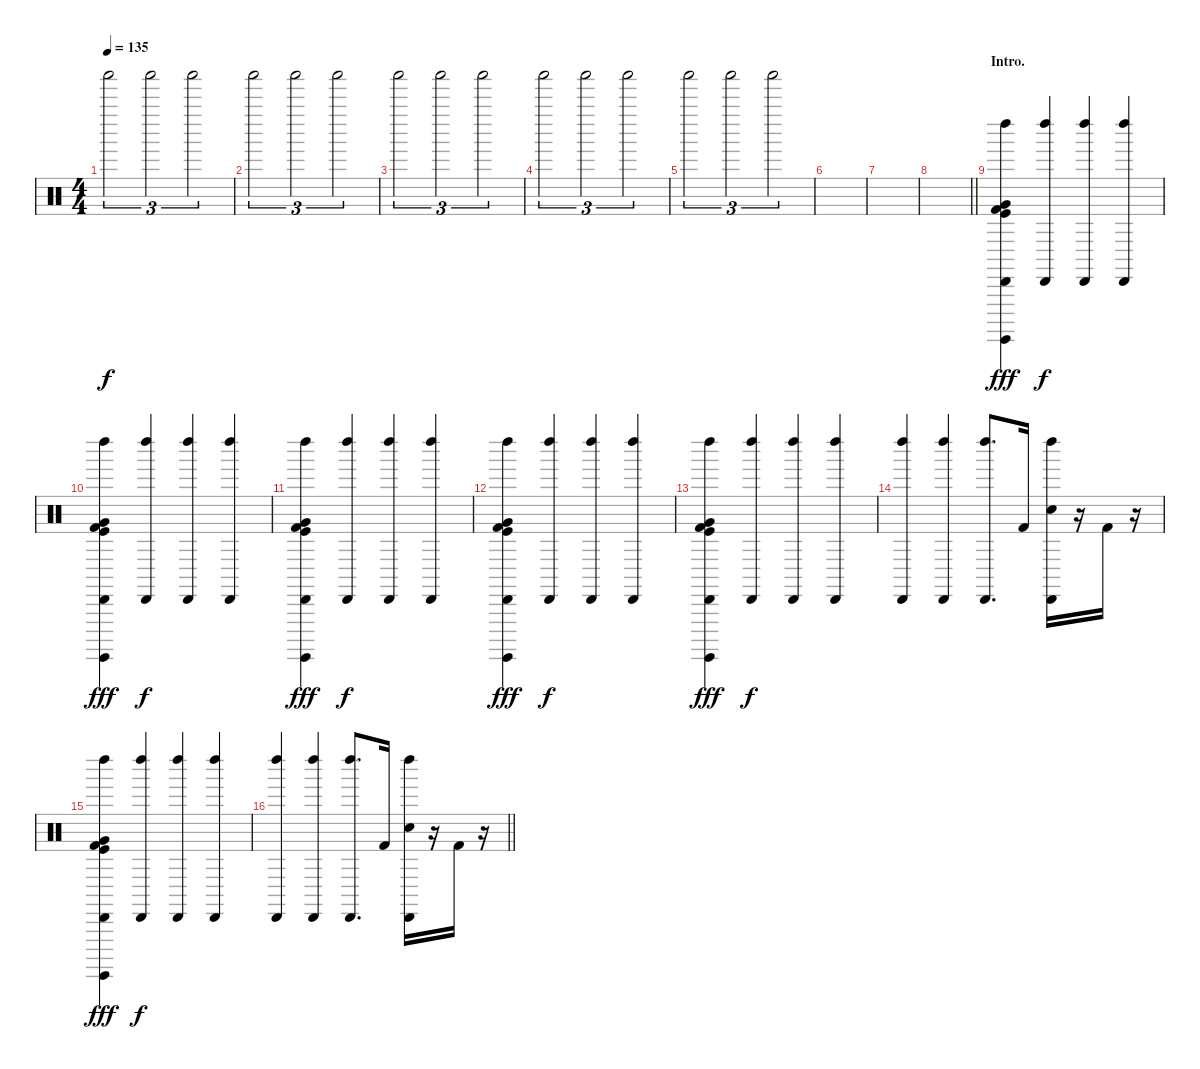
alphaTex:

\track "" {instrument percussion}
\staff {score}
\articulation defaults
\ts (4 4)
\tempo 135
\clef neutral
\ks c "Shaker (hit)".2{tu (3 2) dy f} "Shaker (hit)".2{tu (3 2)} "Shaker (hit)".2{tu (3 2)}
|
"Shaker (hit)".2{tu (3 2)} "Shaker (hit)".2{tu (3 2)} "Shaker (hit)".2{tu (3 2)} |
"Shaker (hit)".2{tu (3 2)} "Shaker (hit)".2{tu (3 2)} "Shaker (hit)".2{tu (3 2)} |
"Shaker (hit)".2{tu (3 2)} "Shaker (hit)".2{tu (3 2)} "Shaker (hit)".2{tu (3 2)} |
"Shaker (hit)".2{tu (3 2)} "Shaker (hit)".2{tu (3 2)} "Shaker (hit)".2{tu (3 2)} |
|
|
\barLineRight lightlight
|
\section ("" "Intro.")
("Left Maraca (hit)" "Cabasa (hit)" "Very Low Tom (hit)" "Surdo (hit)" "Kick (hit)" "Kick (hit) 2").4{dy fff} ("Left Maraca (hit)" "Cabasa (hit)").4{dy f} ("Left Maraca (hit)" "Cabasa (hit)").4 ("Left Maraca (hit)" "Cabasa (hit)").4 |
("Left Maraca (hit)" "Cabasa (hit)" "Very Low Tom (hit)" "Surdo (hit)" "Kick (hit)" "Kick (hit) 2").4{dy fff} ("Left Maraca (hit)" "Cabasa (hit)").4{dy f} ("Left Maraca (hit)" "Cabasa (hit)").4 ("Left Maraca (hit)" "Cabasa (hit)").4 |
("Left Maraca (hit)" "Cabasa (hit)" "Very Low Tom (hit)" "Surdo (hit)" "Kick (hit)" "Kick (hit) 2").4{dy fff} ("Left Maraca (hit)" "Cabasa (hit)").4{dy f} ("Left Maraca (hit)" "Cabasa (hit)").4 ("Left Maraca (hit)" "Cabasa (hit)").4 |
("Left Maraca (hit)" "Cabasa (hit)" "Very Low Tom (hit)" "Surdo (hit)" "Kick (hit)" "Kick (hit) 2").4{dy fff} ("Left Maraca (hit)" "Cabasa (hit)").4{dy f} ("Left Maraca (hit)" "Cabasa (hit)").4 ("Left Maraca (hit)" "Cabasa (hit)").4 |
("Left Maraca (hit)" "Cabasa (hit)" "Very Low Tom (hit)" "Surdo (hit)" "Kick (hit)" "Kick (hit) 2").4{dy fff} ("Left Maraca (hit)" "Cabasa (hit)").4{dy f} ("Left Maraca (hit)" "Cabasa (hit)").4 ("Left Maraca (hit)" "Cabasa (hit)").4 |
("Left Maraca (hit)" "Cabasa (hit)").4 ("Left Maraca (hit)" "Cabasa (hit)").4 ("Left Maraca (hit)" "Cabasa (hit)").8{d} "Kick (hit) 2".16 ("Left Maraca (hit)" "Cabasa (hit)" "Electric Snare (hit)").16 r.16 "Kick (hit) 2".16 r.16 |
("Left Maraca (hit)" "Cabasa (hit)" "Very Low Tom (hit)" "Surdo (hit)" "Kick (hit)" "Kick (hit) 2").4{dy fff} ("Left Maraca (hit)" "Cabasa (hit)").4{dy f} ("Left Maraca (hit)" "Cabasa (hit)").4 ("Left Maraca (hit)" "Cabasa (hit)").4 |
\barLineRight lightlight
("Left Maraca (hit)" "Cabasa (hit)").4 ("Left Maraca (hit)" "Cabasa (hit)").4 ("Left Maraca (hit)" "Cabasa (hit)").8{d} "Kick (hit) 2".16 ("Left Maraca (hit)" "Cabasa (hit)" "Electric Snare (hit)").16 r.16 "Kick (hit) 2".16 r.16
